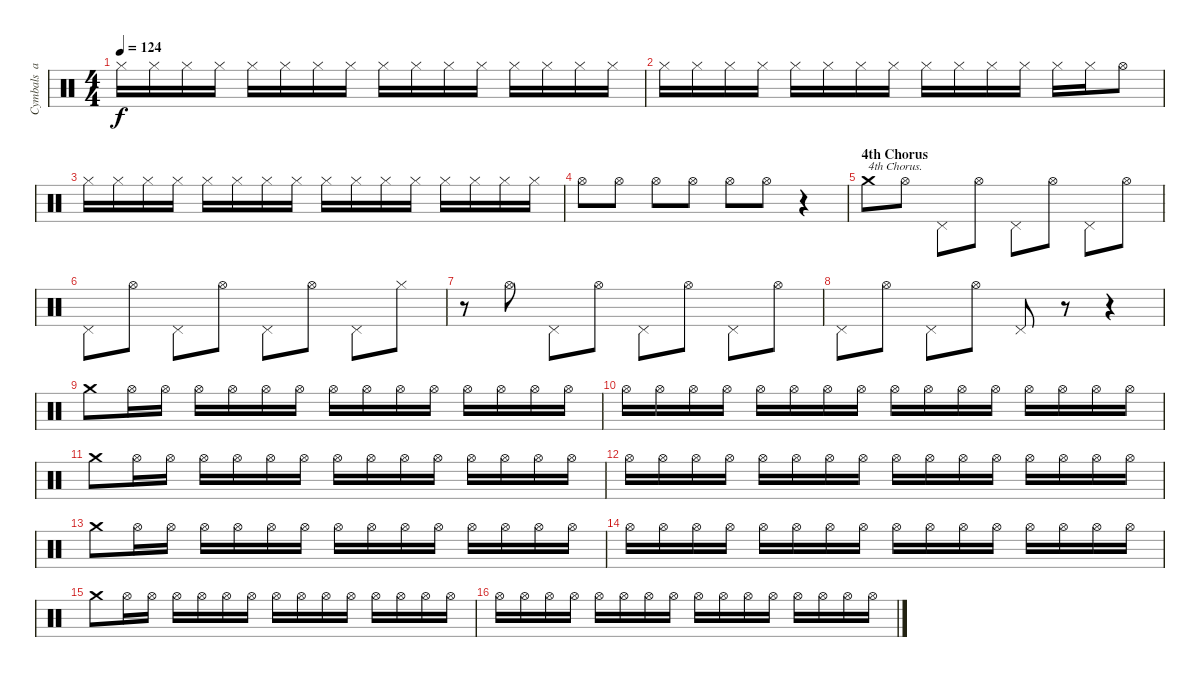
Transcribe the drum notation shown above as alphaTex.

\track ("Cymbals  and Hi-hat" "Cymbals  a") {instrument percussion}
\staff {score}
\articulation defaults
\ts (4 4)
\tempo 124
\clef neutral
\ks c "Hi-Hat (closed)".16{dy f} "Hi-Hat (closed)".16 "Hi-Hat (closed)".16 "Hi-Hat (closed)".16 "Hi-Hat (closed)".16 "Hi-Hat (closed)".16 "Hi-Hat (closed)".16 "Hi-Hat (closed)".16 "Hi-Hat (closed)".16 "Hi-Hat (closed)".16 "Hi-Hat (closed)".16 "Hi-Hat (closed)".16 "Hi-Hat (closed)".16 "Hi-Hat (closed)".16 "Hi-Hat (closed)".16 "Hi-Hat (closed)".16
|
"Hi-Hat (closed)".16 "Hi-Hat (closed)".16 "Hi-Hat (closed)".16 "Hi-Hat (closed)".16 "Hi-Hat (closed)".16 "Hi-Hat (closed)".16 "Hi-Hat (closed)".16 "Hi-Hat (closed)".16 "Hi-Hat (closed)".16 "Hi-Hat (closed)".16 "Hi-Hat (closed)".16 "Hi-Hat (closed)".16 "Hi-Hat (closed)".16 "Hi-Hat (closed)".16 "Hi-Hat (open)".8 |
"Hi-Hat (closed)".16 "Hi-Hat (closed)".16 "Hi-Hat (closed)".16 "Hi-Hat (closed)".16 "Hi-Hat (closed)".16 "Hi-Hat (closed)".16 "Hi-Hat (closed)".16 "Hi-Hat (closed)".16 "Hi-Hat (closed)".16 "Hi-Hat (closed)".16 "Hi-Hat (closed)".16 "Hi-Hat (closed)".16 "Hi-Hat (closed)".16 "Hi-Hat (closed)".16 "Hi-Hat (closed)".16 "Hi-Hat (closed)".16 |
"Hi-Hat (open)".8 "Hi-Hat (open)".8 "Hi-Hat (open)".8 "Hi-Hat (open)".8 "Hi-Hat (open)".8 "Hi-Hat (open)".8 r.4 |
\section ("" "4th Chorus")
"Crash medium (hit)".8{txt "4th Chorus."} "Hi-Hat (open)".8 "Pedal Hi-Hat (hit)".8 "Hi-Hat (open)".8 "Pedal Hi-Hat (hit)".8 "Hi-Hat (open)".8 "Pedal Hi-Hat (hit)".8 "Hi-Hat (open)".8 |
"Pedal Hi-Hat (hit)".8 "Hi-Hat (open)".8 "Pedal Hi-Hat (hit)".8 "Hi-Hat (open)".8 "Pedal Hi-Hat (hit)".8 "Hi-Hat (open)".8 "Pedal Hi-Hat (hit)".8 "Hi-Hat (closed)".8 |
r.8 "Hi-Hat (open)".8 "Pedal Hi-Hat (hit)".8 "Hi-Hat (open)".8 "Pedal Hi-Hat (hit)".8 "Hi-Hat (open)".8 "Pedal Hi-Hat (hit)".8 "Hi-Hat (open)".8 |
"Pedal Hi-Hat (hit)".8 "Hi-Hat (open)".8 "Pedal Hi-Hat (hit)".8 "Hi-Hat (open)".8 "Pedal Hi-Hat (hit)".8 r.8 r.4 |
"Crash medium (hit)".8 "Hi-Hat (open)".16 "Hi-Hat (open)".16 "Hi-Hat (open)".16 "Hi-Hat (open)".16 "Hi-Hat (open)".16 "Hi-Hat (open)".16 "Hi-Hat (open)".16 "Hi-Hat (open)".16 "Hi-Hat (open)".16 "Hi-Hat (open)".16 "Hi-Hat (open)".16 "Hi-Hat (open)".16 "Hi-Hat (open)".16 "Hi-Hat (open)".16 |
"Hi-Hat (open)".16 "Hi-Hat (open)".16 "Hi-Hat (open)".16 "Hi-Hat (open)".16 "Hi-Hat (open)".16 "Hi-Hat (open)".16 "Hi-Hat (open)".16 "Hi-Hat (open)".16 "Hi-Hat (open)".16 "Hi-Hat (open)".16 "Hi-Hat (open)".16 "Hi-Hat (open)".16 "Hi-Hat (open)".16 "Hi-Hat (open)".16 "Hi-Hat (open)".16 "Hi-Hat (open)".16 |
"Crash medium (hit)".8 "Hi-Hat (open)".16 "Hi-Hat (open)".16 "Hi-Hat (open)".16 "Hi-Hat (open)".16 "Hi-Hat (open)".16 "Hi-Hat (open)".16 "Hi-Hat (open)".16 "Hi-Hat (open)".16 "Hi-Hat (open)".16 "Hi-Hat (open)".16 "Hi-Hat (open)".16 "Hi-Hat (open)".16 "Hi-Hat (open)".16 "Hi-Hat (open)".16 |
"Hi-Hat (open)".16 "Hi-Hat (open)".16 "Hi-Hat (open)".16 "Hi-Hat (open)".16 "Hi-Hat (open)".16 "Hi-Hat (open)".16 "Hi-Hat (open)".16 "Hi-Hat (open)".16 "Hi-Hat (open)".16 "Hi-Hat (open)".16 "Hi-Hat (open)".16 "Hi-Hat (open)".16 "Hi-Hat (open)".16 "Hi-Hat (open)".16 "Hi-Hat (open)".16 "Hi-Hat (open)".16 |
"Crash medium (hit)".8 "Hi-Hat (open)".16 "Hi-Hat (open)".16 "Hi-Hat (open)".16 "Hi-Hat (open)".16 "Hi-Hat (open)".16 "Hi-Hat (open)".16 "Hi-Hat (open)".16 "Hi-Hat (open)".16 "Hi-Hat (open)".16 "Hi-Hat (open)".16 "Hi-Hat (open)".16 "Hi-Hat (open)".16 "Hi-Hat (open)".16 "Hi-Hat (open)".16 |
"Hi-Hat (open)".16 "Hi-Hat (open)".16 "Hi-Hat (open)".16 "Hi-Hat (open)".16 "Hi-Hat (open)".16 "Hi-Hat (open)".16 "Hi-Hat (open)".16 "Hi-Hat (open)".16 "Hi-Hat (open)".16 "Hi-Hat (open)".16 "Hi-Hat (open)".16 "Hi-Hat (open)".16 "Hi-Hat (open)".16 "Hi-Hat (open)".16 "Hi-Hat (open)".16 "Hi-Hat (open)".16 |
"Crash medium (hit)".8 "Hi-Hat (open)".16 "Hi-Hat (open)".16 "Hi-Hat (open)".16 "Hi-Hat (open)".16 "Hi-Hat (open)".16 "Hi-Hat (open)".16 "Hi-Hat (open)".16 "Hi-Hat (open)".16 "Hi-Hat (open)".16 "Hi-Hat (open)".16 "Hi-Hat (open)".16 "Hi-Hat (open)".16 "Hi-Hat (open)".16 "Hi-Hat (open)".16 |
"Hi-Hat (open)".16 "Hi-Hat (open)".16 "Hi-Hat (open)".16 "Hi-Hat (open)".16 "Hi-Hat (open)".16 "Hi-Hat (open)".16 "Hi-Hat (open)".16 "Hi-Hat (open)".16 "Hi-Hat (open)".16 "Hi-Hat (open)".16 "Hi-Hat (open)".16 "Hi-Hat (open)".16 "Hi-Hat (open)".16 "Hi-Hat (open)".16 "Hi-Hat (open)".16 "Hi-Hat (open)".16
